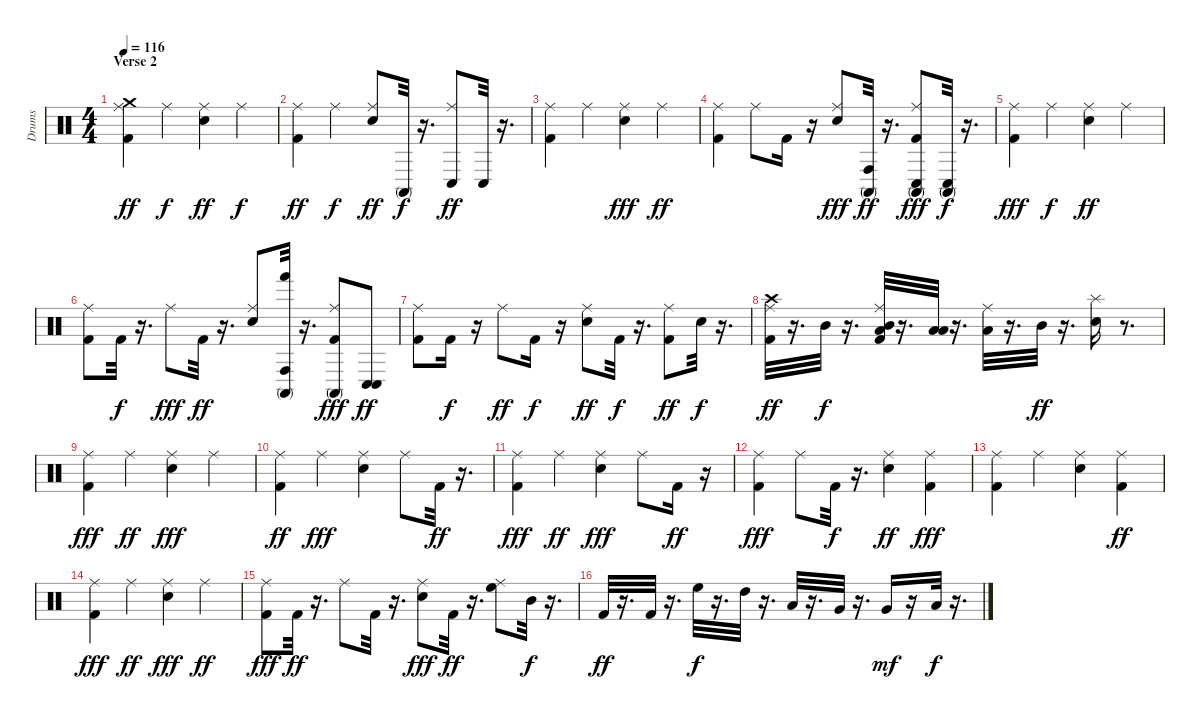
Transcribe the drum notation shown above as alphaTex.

\track ("Drums" "Drums") {instrument percussion}
\staff {score}
\articulation defaults
\ts (4 4)
\section ("" "Verse 2")
\tempo 116
\clef neutral
\ks c
("Kick (hit) 2" "Ride (middle)" "Crash medium (hit)").4{dy ff} "Ride (middle)".4{dy f} ("Snare (hit) 2" "Ride (middle)").4{dy ff} "Ride (middle)".4{dy f} |
("Kick (hit) 2" "Ride (middle)").4{dy ff} "Ride (middle)".4{dy f} ("Snare (hit) 2" "Ride (middle)").8{dy ff} "Conga high (mute)".32{dy f} r.16{d} ("Conga low (hit)" "Ride (middle)").8{dy ff} "Conga low (hit)".32 r.16{d} |
("Kick (hit) 2" "Ride (middle)").4 "Ride (middle)".4 ("Snare (hit) 2" "Ride (middle)").4{dy fff} "Ride (middle)".4{dy ff} |
("Kick (hit) 2" "Ride (middle)").4 "Ride (middle)".8 "Kick (hit) 2".16 r.16 ("Snare (hit) 2" "Ride (middle)").8{dy fff} ("Conga high (mute)" "Conga high (hit)").32{dy ff} r.16{d} ("Conga high (mute)" "Conga low (hit)" "Kick (hit) 2" "Ride (middle)").8{dy fff} ("Conga high (mute)" "Conga low (hit)").32{dy f} r.16{d} |
("Kick (hit) 2" "Ride (middle)").4{dy fff} "Ride (middle)".4{dy f} ("Ride (middle)" "Snare (hit) 2").4{dy ff} "Ride (middle)".4 |
("Kick (hit) 2" "Ride (middle)").8 "Kick (hit) 2".32{dy f} r.16{d} "Ride (middle)".8{dy fff} "Kick (hit) 2".32{dy ff} r.16{d} ("Snare (hit) 2" "Ride (middle)").8 ("Conga high (mute)" "Hand (hit)" "Conga high (hit)").32 r.16{d} ("Conga high (mute)" "Kick (hit) 2" "Ride (middle)").8{dy fff} ("Conga low (hit)" "Conga low (hit)").8{dy ff} |
("Kick (hit) 2" "Ride (middle)").8 "Kick (hit) 2".16{dy f} r.16 "Ride (middle)".8{dy ff} "Kick (hit) 2".16{dy f} r.16 ("Snare (hit) 2" "Ride (middle)").8{dy ff} "Kick (hit) 2".32{dy f} r.16{d} ("Kick (hit) 2" "Ride (middle)").8{dy ff} "Snare (hit) 2".32{dy f} r.16{d} |
("Crash high (hit)" "Ride (middle)" "Kick (hit) 2").32{dy ff} r.16{d} "Mid Tom (hit)".32{dy f} r.16{d} ("Ride (middle)" "Low Tom (hit)" "Mid Tom (hit)" "Kick (hit) 2").32 r.16{d} ("Low Floor Tom (hit)" "Low Tom (hit)").32 r.16{d} ("Low Tom (hit)" "Ride (middle)").32 r.16{d} "Mid Tom (hit)".32{dy ff} r.16{d} ("Splash (hit)" "Snare (hit) 2").16 r.8{d} |
("Kick (hit) 2" "Ride (middle)").4{dy fff} "Ride (middle)".4{dy ff} ("Snare (hit) 2" "Ride (middle)").4{dy fff} "Ride (middle)".4 |
("Kick (hit) 2" "Ride (middle)").4{dy ff} "Ride (middle)".4{dy fff} ("Snare (hit) 2" "Ride (middle)").4 "Ride (middle)".8 "Kick (hit) 2".32{dy ff} r.16{d} |
("Kick (hit) 2" "Ride (middle)").4{dy fff} "Ride (middle)".4{dy ff} ("Snare (hit) 2" "Ride (middle)").4{dy fff} "Ride (middle)".8 "Kick (hit) 2".16{dy ff} r.16 |
("Kick (hit) 2" "Ride (middle)").4{dy fff} "Ride (middle)".8 "Kick (hit) 2".32{dy f} r.16{d} ("Snare (hit) 2" "Ride (middle)").4{dy ff} ("Kick (hit) 2" "Ride (middle)").4{dy fff} |
("Kick (hit) 2" "Ride (middle)").4 "Ride (middle)".4 ("Snare (hit) 2" "Ride (middle)").4 ("Kick (hit) 2" "Ride (middle)").4{dy ff} |
("Kick (hit) 2" "Ride (middle)").4{dy fff} "Ride (middle)".4{dy ff} ("Snare (hit) 2" "Ride (middle)").4{dy fff} "Ride (middle)".4{dy ff} |
("Kick (hit) 2" "Ride (middle)").8{dy fff} "Kick (hit) 2".32{dy ff} r.16{d} "Ride (middle)".8 "Kick (hit) 2".32 r.16{d} ("Snare (hit) 2" "Ride (middle)").8{dy fff} "Kick (hit) 2".32{dy ff} r.16{d} ("High Floor Tom (hit)" "Ride (middle)").8 "Mid Tom (hit)".32{dy f} r.16{d} |
"Kick (hit) 2".32{dy ff} r.16{d} "Kick (hit) 2".32 r.16{d} "High Floor Tom (hit)".32{dy f} r.16{d} "High Tom (hit)".32 r.16{d} "Low Tom (hit)".32 r.16{d} "Very Low Tom (hit)".32 r.16{d} "Very Low Tom (hit)".16{dy mf} r.16 "Low Floor Tom (hit)".32{dy f} r.16{d}
